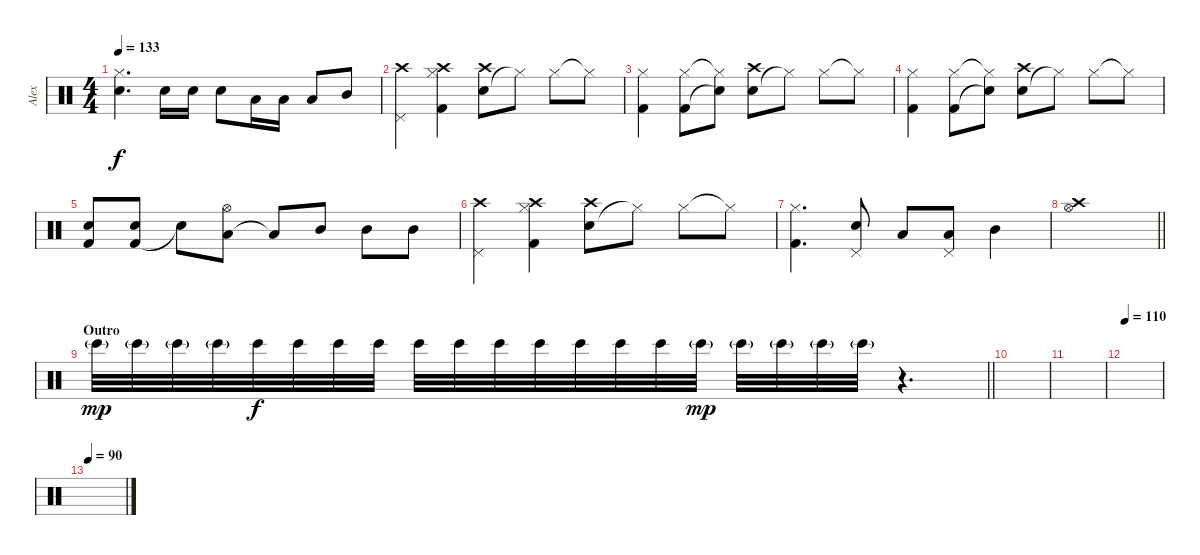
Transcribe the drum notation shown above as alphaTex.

\track ("Alex" "Alex") {instrument percussion}
\staff {score}
\articulation defaults
\ts (4 4)
\tempo 133
\clef neutral
\ks c
("Electric Snare (hit)" "Hi-Hat (closed)").4{d dy f} "Electric Snare (hit)".16 "Electric Snare (hit)".16 "Electric Snare (hit)".8 "Low Tom (hit)".16 "Low Tom (hit)".16 "Low Tom (hit)".8 "Mid Tom (hit)".8 |
("Pedal Hi-Hat (hit)" "Crash high (hit)").4 ("Kick (hit) 2" "Hi-Hat (closed)" "Crash high (hit)").4 ("Electric Snare (hit)" "Crash high (hit)").8 "Hi-Hat (closed)"{t}.8 "Hi-Hat (closed)".8 "Hi-Hat (closed)"{t}.8 |
("Kick (hit) 2" "Hi-Hat (closed)").4 ("Kick (hit) 2" "Hi-Hat (closed)").8 ("Electric Snare (hit)"{t} "Hi-Hat (closed)"{t}).8 ("Electric Snare (hit)" "Crash high (hit)").8 "Hi-Hat (closed)"{t}.8 "Hi-Hat (closed)".8 "Hi-Hat (closed)"{t}.8 |
("Kick (hit) 2" "Hi-Hat (closed)").4 ("Kick (hit) 2" "Hi-Hat (closed)").8 ("Electric Snare (hit)"{t} "Hi-Hat (closed)"{t}).8 ("Electric Snare (hit)" "Crash high (hit)").8 "Hi-Hat (closed)"{t}.8 "Hi-Hat (closed)".8 "Hi-Hat (closed)"{t}.8 |
("Kick (hit) 2" "Electric Snare (hit)").8 ("Kick (hit) 2" "Electric Snare (hit)").8 "Electric Snare (hit)"{t}.8 ("Low Tom (hit)" "Hi-Hat (open)").8 "Low Tom (hit)"{t}.8 "Mid Tom (hit)".8 "Mid Tom (hit)".8 "Mid Tom (hit)".8 |
("Pedal Hi-Hat (hit)" "Crash high (hit)").4 ("Kick (hit) 2" "Hi-Hat (closed)" "Crash high (hit)").4 ("Electric Snare (hit)" "Crash high (hit)").8 "Hi-Hat (closed)"{t}.8 "Hi-Hat (closed)".8 "Hi-Hat (closed)"{t}.8 |
("Kick (hit) 2" "Hi-Hat (closed)").4{d} ("Electric Snare (hit)" "Pedal Hi-Hat (hit)").8 "Low Floor Tom (hit)".8 ("Low Tom (hit)" "Pedal Hi-Hat (hit)").8 "Mid Tom (hit)".4 |
\barLineRight lightlight
("Hi-Hat (open)" "Crash high (hit)").1 |
\section ("" "Outro")
\barLineRight lightlight "Bongo High (hit)"{g}.32{dy mp} "Bongo High (hit)"{g}.32 "Bongo High (hit)"{g}.32 "Bongo High (hit)"{g}.32 "Bongo High (hit)".32{dy f} "Bongo High (hit)".32 "Bongo High (hit)".32 "Bongo High (hit)".32 "Bongo High (hit)".32 "Bongo High (hit)".32 "Bongo High (hit)".32 "Bongo High (hit)".32 "Bongo High (hit)".32 "Bongo High (hit)".32 "Bongo High (hit)".32 "Bongo High (hit)"{g}.32{dy mp} "Bongo High (hit)"{g}.32 "Bongo High (hit)"{g}.32 "Bongo High (hit)"{g}.32 "Bongo High (hit)"{g}.32
r.4{d} |
|
|
\tempo 110
|
\tempo 90
